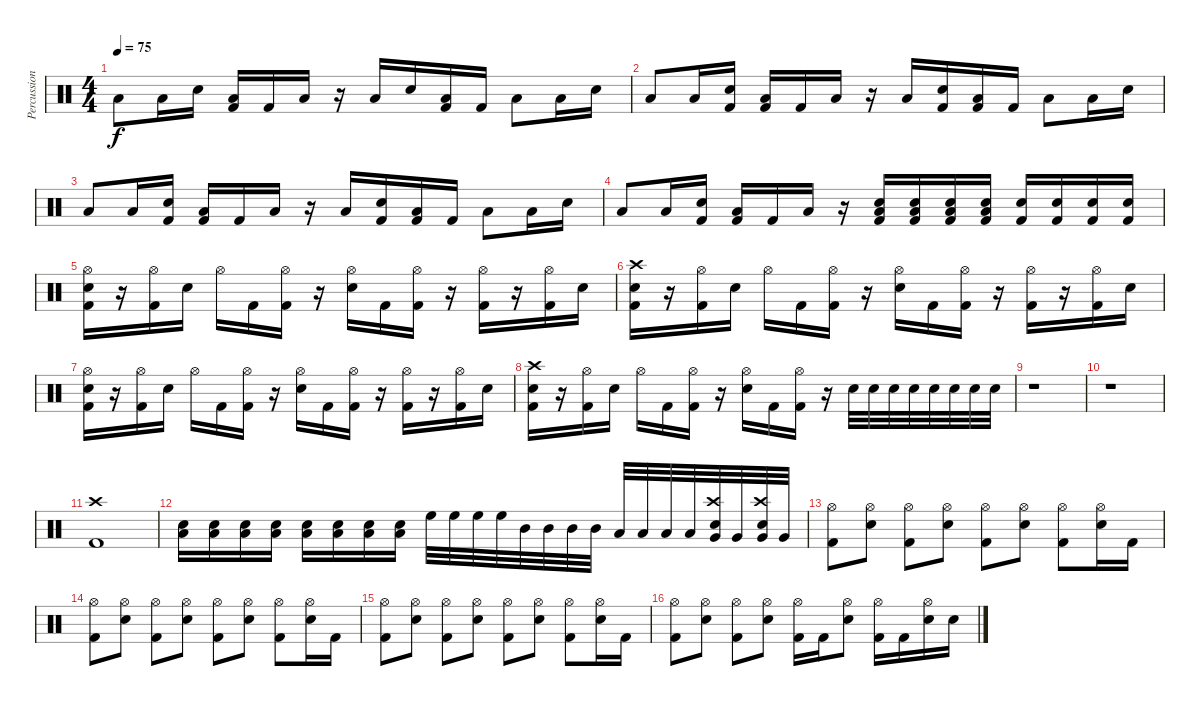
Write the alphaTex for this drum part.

\track ("Percussion" "Percussion") {instrument percussion}
\staff {score}
\articulation defaults
\ts (4 4)
\tempo 75
\clef neutral
\ks c "Low Tom (hit)".8{dy f} "Low Tom (hit)".16 "Snare (hit) 2".16
("Kick (hit) 2" "Low Tom (hit)").16 "Kick (hit) 2".16 "Low Tom (hit)".16 r.16 "Low Tom (hit)".16 "Snare (hit) 2".16 ("Kick (hit) 2" "Low Tom (hit)").16 "Kick (hit) 2".16 "Low Tom (hit)".8 "Low Tom (hit)".16 "Snare (hit) 2".16 |
"Low Tom (hit)".8 "Low Tom (hit)".16 ("Kick (hit) 2" "Snare (hit) 2").16 ("Kick (hit) 2" "Low Tom (hit)").16 "Kick (hit) 2".16 "Low Tom (hit)".16 r.16 "Low Tom (hit)".16 ("Kick (hit) 2" "Snare (hit) 2").16 ("Kick (hit) 2" "Low Tom (hit)").16 "Kick (hit) 2".16 "Low Tom (hit)".8 "Low Tom (hit)".16 "Snare (hit) 2".16 |
"Low Tom (hit)".8 "Low Tom (hit)".16 ("Kick (hit) 2" "Snare (hit) 2").16 ("Kick (hit) 2" "Low Tom (hit)").16 "Kick (hit) 2".16 "Low Tom (hit)".16 r.16 "Low Tom (hit)".16 ("Kick (hit) 2" "Snare (hit) 2").16 ("Kick (hit) 2" "Low Tom (hit)").16 "Kick (hit) 2".16 "Low Tom (hit)".8 "Low Tom (hit)".16 "Snare (hit) 2".16 |
"Low Tom (hit)".8 "Low Tom (hit)".16 ("Kick (hit) 2" "Snare (hit) 2").16 ("Kick (hit) 2" "Low Tom (hit)").16 "Kick (hit) 2".16 "Low Tom (hit)".16 r.16 ("Kick (hit) 2" "Low Tom (hit)" "Snare (hit) 2").16 ("Kick (hit) 2" "Low Tom (hit)" "Snare (hit) 2").16 ("Kick (hit) 2" "Low Tom (hit)" "Snare (hit) 2").16 ("Kick (hit) 2" "Low Tom (hit)" "Snare (hit) 2").16 ("Kick (hit) 2" "Snare (hit) 2").16 ("Kick (hit) 2" "Snare (hit) 2").16 ("Kick (hit) 2" "Snare (hit) 2").16 ("Kick (hit) 2" "Snare (hit) 2").16 |
("Hi-Hat (open)" "Kick (hit) 2" "Snare (hit) 2").16 r.16 ("Hi-Hat (open)" "Kick (hit) 2").16 "Snare (hit) 2".16 "Hi-Hat (open)".16 "Kick (hit) 2".16 ("Hi-Hat (open)" "Kick (hit) 2").16 r.16 ("Hi-Hat (open)" "Snare (hit) 2").16 "Kick (hit) 2".16 ("Hi-Hat (open)" "Kick (hit) 2").16 r.16 ("Hi-Hat (open)" "Kick (hit) 2").16 r.16 ("Hi-Hat (open)" "Kick (hit) 2").16 "Snare (hit) 2".16 |
("Crash high (hit)" "Kick (hit) 2" "Snare (hit) 2").16 r.16 ("Hi-Hat (open)" "Kick (hit) 2").16 "Snare (hit) 2".16 "Hi-Hat (open)".16 "Kick (hit) 2".16 ("Hi-Hat (open)" "Kick (hit) 2").16 r.16 ("Hi-Hat (open)" "Snare (hit) 2").16 "Kick (hit) 2".16 ("Hi-Hat (open)" "Kick (hit) 2").16 r.16 ("Hi-Hat (open)" "Kick (hit) 2").16 r.16 ("Hi-Hat (open)" "Kick (hit) 2").16 "Snare (hit) 2".16 |
("Hi-Hat (open)" "Kick (hit) 2" "Snare (hit) 2").16 r.16 ("Hi-Hat (open)" "Kick (hit) 2").16 "Snare (hit) 2".16 "Hi-Hat (open)".16 "Kick (hit) 2".16 ("Hi-Hat (open)" "Kick (hit) 2").16 r.16 ("Hi-Hat (open)" "Snare (hit) 2").16 "Kick (hit) 2".16 ("Hi-Hat (open)" "Kick (hit) 2").16 r.16 ("Hi-Hat (open)" "Kick (hit) 2").16 r.16 ("Hi-Hat (open)" "Kick (hit) 2").16 "Snare (hit) 2".16 |
("Crash high (hit)" "Kick (hit) 2" "Snare (hit) 2").16 r.16 ("Hi-Hat (open)" "Kick (hit) 2").16 "Snare (hit) 2".16 "Hi-Hat (open)".16 "Kick (hit) 2".16 ("Hi-Hat (open)" "Kick (hit) 2").16 r.16 ("Hi-Hat (open)" "Snare (hit) 2").16 "Kick (hit) 2".16 ("Hi-Hat (open)" "Kick (hit) 2").16 r.16 "Snare (hit) 2".32 "Snare (hit) 2".32 "Snare (hit) 2".32 "Snare (hit) 2".32 "Snare (hit) 2".32 "Snare (hit) 2".32 "Snare (hit) 2".32 "Snare (hit) 2".32 |
r.1 |
r.1 |
("Crash high (hit)" "Kick (hit) 2").1 |
("Low Tom (hit)" "Snare (hit) 2").16 ("Low Tom (hit)" "Snare (hit) 2").16 ("Low Tom (hit)" "Snare (hit) 2").16 ("Low Tom (hit)" "Snare (hit) 2").16 ("Low Tom (hit)" "Snare (hit) 2").16 ("Low Tom (hit)" "Snare (hit) 2").16 ("Low Tom (hit)" "Snare (hit) 2").16 ("Low Tom (hit)" "Snare (hit) 2").16 "High Floor Tom (hit)".32 "High Floor Tom (hit)".32 "High Floor Tom (hit)".32 "High Floor Tom (hit)".32 "Mid Tom (hit)".32 "Mid Tom (hit)".32 "Mid Tom (hit)".32 "Mid Tom (hit)".32 "Low Tom (hit)".32 "Low Tom (hit)".32 "Low Tom (hit)".32 "Low Tom (hit)".32 ("Crash high (hit)" "Very Low Tom (hit)" "Snare (hit) 2").32 "Very Low Tom (hit)".32 ("Crash high (hit)" "Very Low Tom (hit)" "Snare (hit) 2").32 "Very Low Tom (hit)".32 |
("Hi-Hat (open)" "Kick (hit) 2").8 ("Hi-Hat (open)" "Snare (hit) 2").8 ("Hi-Hat (open)" "Kick (hit) 2").8 ("Hi-Hat (open)" "Snare (hit) 2").8 ("Hi-Hat (open)" "Kick (hit) 2").8 ("Hi-Hat (open)" "Snare (hit) 2").8 ("Hi-Hat (open)" "Kick (hit) 2").8 ("Hi-Hat (open)" "Snare (hit) 2").16 "Kick (hit) 2".16 |
("Hi-Hat (open)" "Kick (hit) 2").8 ("Hi-Hat (open)" "Snare (hit) 2").8 ("Hi-Hat (open)" "Kick (hit) 2").8 ("Hi-Hat (open)" "Snare (hit) 2").8 ("Hi-Hat (open)" "Kick (hit) 2").8 ("Hi-Hat (open)" "Snare (hit) 2").8 ("Hi-Hat (open)" "Kick (hit) 2").8 ("Hi-Hat (open)" "Snare (hit) 2").16 "Kick (hit) 2".16 |
("Hi-Hat (open)" "Kick (hit) 2").8 ("Hi-Hat (open)" "Snare (hit) 2").8 ("Hi-Hat (open)" "Kick (hit) 2").8 ("Hi-Hat (open)" "Snare (hit) 2").8 ("Hi-Hat (open)" "Kick (hit) 2").8 ("Hi-Hat (open)" "Snare (hit) 2").8 ("Hi-Hat (open)" "Kick (hit) 2").8 ("Hi-Hat (open)" "Snare (hit) 2").16 "Kick (hit) 2".16 |
("Hi-Hat (open)" "Kick (hit) 2").8 ("Hi-Hat (open)" "Snare (hit) 2").8 ("Hi-Hat (open)" "Kick (hit) 2").8 ("Hi-Hat (open)" "Snare (hit) 2").8 ("Hi-Hat (open)" "Kick (hit) 2").16 "Kick (hit) 2".16 ("Hi-Hat (open)" "Snare (hit) 2").8 ("Hi-Hat (open)" "Kick (hit) 2").16 "Kick (hit) 2".16 ("Hi-Hat (open)" "Snare (hit) 2").16 "Snare (hit) 2".16
